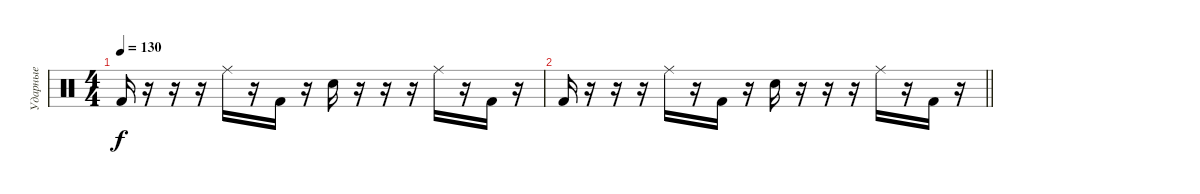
\track ("Ударные" "Ударные") {instrument percussion}
\staff {score}
\articulation defaults
\ts (4 4)
\tempo 130
\clef neutral
\ks c "Kick (hit) 2".16{dy f}
r.16 r.16 r.16 "Ride (middle)".16 r.16 "Kick (hit) 2".16 r.16 "Electric Snare (hit)".16 r.16 r.16 r.16 "Ride (middle)".16 r.16 "Kick (hit) 2".16 r.16 |
\barLineRight lightlight "Kick (hit) 2".16
r.16 r.16 r.16 "Ride (middle)".16 r.16 "Kick (hit) 2".16 r.16 "Electric Snare (hit)".16 r.16 r.16 r.16 "Ride (middle)".16 r.16 "Kick (hit) 2".16 r.16
